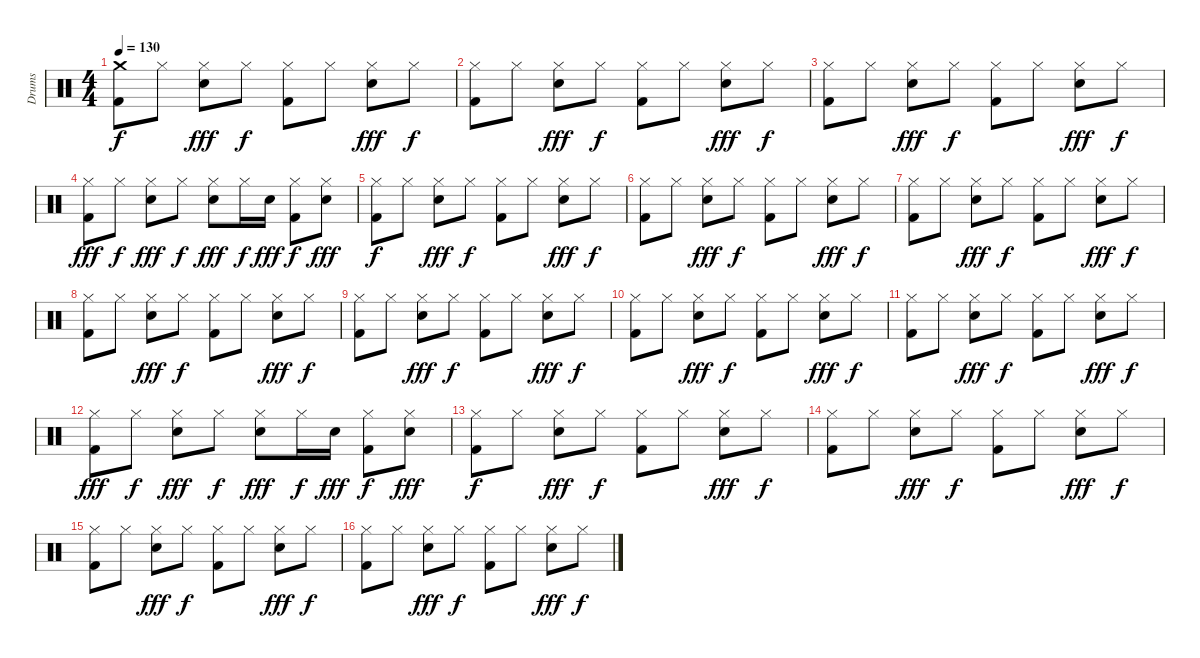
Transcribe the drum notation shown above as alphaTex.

\track ("Drums" "Drums") {instrument percussion}
\staff {score}
\articulation defaults
\ts (4 4)
\tempo 130
\clef neutral
\ks c
("Crash medium (hit)" "Kick (hit) 2").8{dy f} "Hi-Hat (closed)".8 ("Hi-Hat (closed)" "Snare (hit) 2").8{dy fff} "Hi-Hat (closed)".8{dy f} ("Hi-Hat (closed)" "Kick (hit) 2").8 "Hi-Hat (closed)".8 ("Hi-Hat (closed)" "Snare (hit) 2").8{dy fff} "Hi-Hat (closed)".8{dy f} |
("Hi-Hat (closed)" "Kick (hit) 2").8 "Hi-Hat (closed)".8 ("Hi-Hat (closed)" "Snare (hit) 2").8{dy fff} "Hi-Hat (closed)".8{dy f} ("Hi-Hat (closed)" "Kick (hit) 2").8 "Hi-Hat (closed)".8 ("Hi-Hat (closed)" "Snare (hit) 2").8{dy fff} "Hi-Hat (closed)".8{dy f} |
("Hi-Hat (closed)" "Kick (hit) 2").8 "Hi-Hat (closed)".8 ("Hi-Hat (closed)" "Snare (hit) 2").8{dy fff} "Hi-Hat (closed)".8{dy f} ("Hi-Hat (closed)" "Kick (hit) 2").8 "Hi-Hat (closed)".8 ("Hi-Hat (closed)" "Snare (hit) 2").8{dy fff} "Hi-Hat (closed)".8{dy f} |
("Hi-Hat (closed)" "Kick (hit) 2").8{dy fff} "Hi-Hat (closed)".8{dy f} ("Hi-Hat (closed)" "Snare (hit) 2").8{dy fff} "Hi-Hat (closed)".8{dy f} ("Hi-Hat (closed)" "Snare (hit) 2").8{dy fff} "Hi-Hat (closed)".16{dy f} "Snare (hit) 2".16{dy fff} ("Hi-Hat (closed)" "Kick (hit) 2").8{dy f} ("Hi-Hat (closed)" "Snare (hit) 2").8{dy fff} |
("Hi-Hat (closed)" "Kick (hit) 2").8{dy f} "Hi-Hat (closed)".8 ("Hi-Hat (closed)" "Snare (hit) 2").8{dy fff} "Hi-Hat (closed)".8{dy f} ("Hi-Hat (closed)" "Kick (hit) 2").8 "Hi-Hat (closed)".8 ("Hi-Hat (closed)" "Snare (hit) 2").8{dy fff} "Hi-Hat (closed)".8{dy f} |
("Hi-Hat (closed)" "Kick (hit) 2").8 "Hi-Hat (closed)".8 ("Hi-Hat (closed)" "Snare (hit) 2").8{dy fff} "Hi-Hat (closed)".8{dy f} ("Hi-Hat (closed)" "Kick (hit) 2").8 "Hi-Hat (closed)".8 ("Hi-Hat (closed)" "Snare (hit) 2").8{dy fff} "Hi-Hat (closed)".8{dy f} |
("Hi-Hat (closed)" "Kick (hit) 2").8 "Hi-Hat (closed)".8 ("Hi-Hat (closed)" "Snare (hit) 2").8{dy fff} "Hi-Hat (closed)".8{dy f} ("Hi-Hat (closed)" "Kick (hit) 2").8 "Hi-Hat (closed)".8 ("Hi-Hat (closed)" "Snare (hit) 2").8{dy fff} "Hi-Hat (closed)".8{dy f} |
("Hi-Hat (closed)" "Kick (hit) 2").8 "Hi-Hat (closed)".8 ("Hi-Hat (closed)" "Snare (hit) 2").8{dy fff} "Hi-Hat (closed)".8{dy f} ("Hi-Hat (closed)" "Kick (hit) 2").8 "Hi-Hat (closed)".8 ("Hi-Hat (closed)" "Snare (hit) 2").8{dy fff} "Hi-Hat (closed)".8{dy f} |
("Hi-Hat (closed)" "Kick (hit) 2").8 "Hi-Hat (closed)".8 ("Hi-Hat (closed)" "Snare (hit) 2").8{dy fff} "Hi-Hat (closed)".8{dy f} ("Hi-Hat (closed)" "Kick (hit) 2").8 "Hi-Hat (closed)".8 ("Hi-Hat (closed)" "Snare (hit) 2").8{dy fff} "Hi-Hat (closed)".8{dy f} |
("Hi-Hat (closed)" "Kick (hit) 2").8 "Hi-Hat (closed)".8 ("Hi-Hat (closed)" "Snare (hit) 2").8{dy fff} "Hi-Hat (closed)".8{dy f} ("Hi-Hat (closed)" "Kick (hit) 2").8 "Hi-Hat (closed)".8 ("Hi-Hat (closed)" "Snare (hit) 2").8{dy fff} "Hi-Hat (closed)".8{dy f} |
("Hi-Hat (closed)" "Kick (hit) 2").8 "Hi-Hat (closed)".8 ("Hi-Hat (closed)" "Snare (hit) 2").8{dy fff} "Hi-Hat (closed)".8{dy f} ("Hi-Hat (closed)" "Kick (hit) 2").8 "Hi-Hat (closed)".8 ("Hi-Hat (closed)" "Snare (hit) 2").8{dy fff} "Hi-Hat (closed)".8{dy f} |
("Hi-Hat (closed)" "Kick (hit) 2").8{dy fff} "Hi-Hat (closed)".8{dy f} ("Hi-Hat (closed)" "Snare (hit) 2").8{dy fff} "Hi-Hat (closed)".8{dy f} ("Hi-Hat (closed)" "Snare (hit) 2").8{dy fff} "Hi-Hat (closed)".16{dy f} "Snare (hit) 2".16{dy fff} ("Hi-Hat (closed)" "Kick (hit) 2").8{dy f} ("Hi-Hat (closed)" "Snare (hit) 2").8{dy fff} |
("Hi-Hat (closed)" "Kick (hit) 2").8{dy f} "Hi-Hat (closed)".8 ("Hi-Hat (closed)" "Snare (hit) 2").8{dy fff} "Hi-Hat (closed)".8{dy f} ("Hi-Hat (closed)" "Kick (hit) 2").8 "Hi-Hat (closed)".8 ("Hi-Hat (closed)" "Snare (hit) 2").8{dy fff} "Hi-Hat (closed)".8{dy f} |
("Hi-Hat (closed)" "Kick (hit) 2").8 "Hi-Hat (closed)".8 ("Hi-Hat (closed)" "Snare (hit) 2").8{dy fff} "Hi-Hat (closed)".8{dy f} ("Hi-Hat (closed)" "Kick (hit) 2").8 "Hi-Hat (closed)".8 ("Hi-Hat (closed)" "Snare (hit) 2").8{dy fff} "Hi-Hat (closed)".8{dy f} |
("Hi-Hat (closed)" "Kick (hit) 2").8 "Hi-Hat (closed)".8 ("Hi-Hat (closed)" "Snare (hit) 2").8{dy fff} "Hi-Hat (closed)".8{dy f} ("Hi-Hat (closed)" "Kick (hit) 2").8 "Hi-Hat (closed)".8 ("Hi-Hat (closed)" "Snare (hit) 2").8{dy fff} "Hi-Hat (closed)".8{dy f} |
("Hi-Hat (closed)" "Kick (hit) 2").8 "Hi-Hat (closed)".8 ("Hi-Hat (closed)" "Snare (hit) 2").8{dy fff} "Hi-Hat (closed)".8{dy f} ("Hi-Hat (closed)" "Kick (hit) 2").8 "Hi-Hat (closed)".8 ("Hi-Hat (closed)" "Snare (hit) 2").8{dy fff} "Hi-Hat (closed)".8{dy f}
